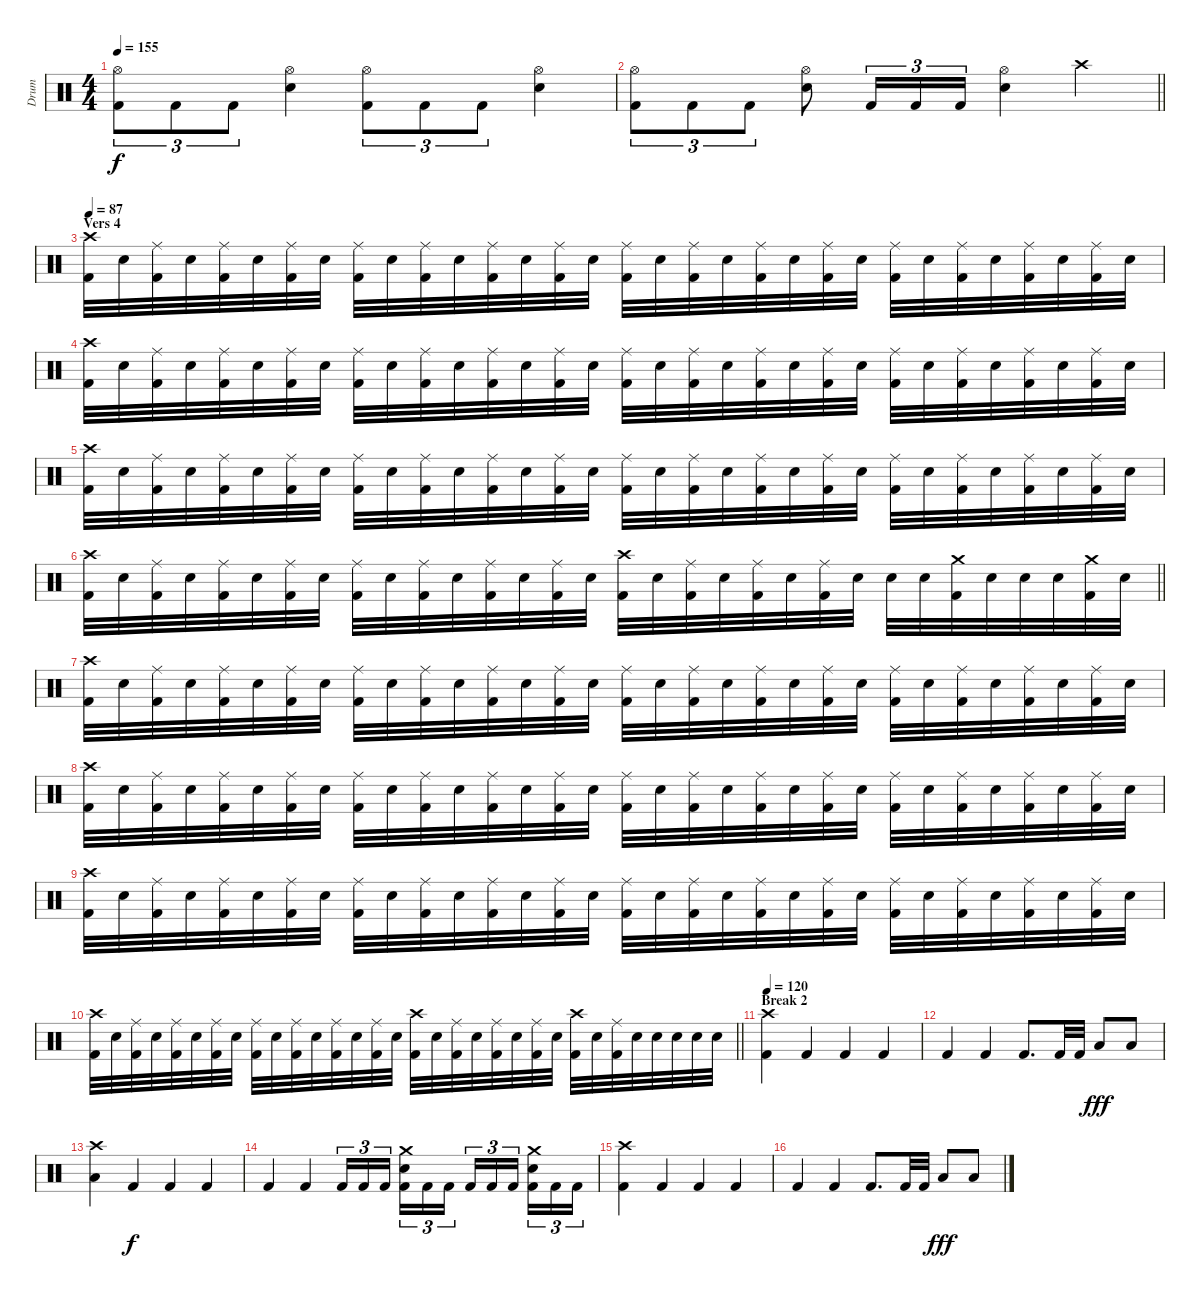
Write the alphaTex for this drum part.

\track ("Drum" "Drum") {instrument percussion}
\staff {score}
\articulation defaults
\ts (4 4)
\tempo 155
\clef neutral
\ks c
("Hi-Hat (open)" "Kick (hit) 2").8{tu (3 2) dy f} "Kick (hit) 2".8{tu (3 2)} "Kick (hit) 2".8{tu (3 2)} ("Hi-Hat (open)" "Electric Snare (hit)").4 ("Hi-Hat (open)" "Kick (hit) 2").8{tu (3 2)} "Kick (hit) 2".8{tu (3 2)} "Kick (hit) 2".8{tu (3 2)} ("Hi-Hat (open)" "Electric Snare (hit)").4 |
\barLineRight lightlight
("Hi-Hat (open)" "Kick (hit) 2").8{tu (3 2)} "Kick (hit) 2".8{tu (3 2)} "Kick (hit) 2".8{tu (3 2)} ("Hi-Hat (open)" "Electric Snare (hit)").8 "Kick (hit) 2".16{tu (3 2)} "Kick (hit) 2".16{tu (3 2)} "Kick (hit) 2".16{tu (3 2)} ("Hi-Hat (open)" "Electric Snare (hit)").4 "Crash high (hit)".4 |
\section ("" "Vers 4")
\tempo 87
("Crash high (hit)" "Kick (hit) 2").32 "Electric Snare (hit)".32 ("Ride (middle)" "Kick (hit) 2").32 "Electric Snare (hit)".32 ("Ride (middle)" "Kick (hit) 2").32 "Electric Snare (hit)".32 ("Ride (middle)" "Kick (hit) 2").32 "Electric Snare (hit)".32 ("Ride (middle)" "Kick (hit) 2").32 "Electric Snare (hit)".32 ("Ride (middle)" "Kick (hit) 2").32 "Electric Snare (hit)".32 ("Ride (middle)" "Kick (hit) 2").32 "Electric Snare (hit)".32 ("Ride (middle)" "Kick (hit) 2").32 "Electric Snare (hit)".32 ("Ride (middle)" "Kick (hit) 2").32 "Electric Snare (hit)".32 ("Ride (middle)" "Kick (hit) 2").32 "Electric Snare (hit)".32 ("Ride (middle)" "Kick (hit) 2").32 "Electric Snare (hit)".32 ("Ride (middle)" "Kick (hit) 2").32 "Electric Snare (hit)".32 ("Ride (middle)" "Kick (hit) 2").32 "Electric Snare (hit)".32 ("Ride (middle)" "Kick (hit) 2").32 "Electric Snare (hit)".32 ("Ride (middle)" "Kick (hit) 2").32 "Electric Snare (hit)".32 ("Ride (middle)" "Kick (hit) 2").32 "Electric Snare (hit)".32 |
("Crash high (hit)" "Kick (hit) 2").32 "Electric Snare (hit)".32 ("Ride (middle)" "Kick (hit) 2").32 "Electric Snare (hit)".32 ("Ride (middle)" "Kick (hit) 2").32 "Electric Snare (hit)".32 ("Ride (middle)" "Kick (hit) 2").32 "Electric Snare (hit)".32 ("Ride (middle)" "Kick (hit) 2").32 "Electric Snare (hit)".32 ("Ride (middle)" "Kick (hit) 2").32 "Electric Snare (hit)".32 ("Ride (middle)" "Kick (hit) 2").32 "Electric Snare (hit)".32 ("Ride (middle)" "Kick (hit) 2").32 "Electric Snare (hit)".32 ("Ride (middle)" "Kick (hit) 2").32 "Electric Snare (hit)".32 ("Ride (middle)" "Kick (hit) 2").32 "Electric Snare (hit)".32 ("Ride (middle)" "Kick (hit) 2").32 "Electric Snare (hit)".32 ("Ride (middle)" "Kick (hit) 2").32 "Electric Snare (hit)".32 ("Ride (middle)" "Kick (hit) 2").32 "Electric Snare (hit)".32 ("Ride (middle)" "Kick (hit) 2").32 "Electric Snare (hit)".32 ("Ride (middle)" "Kick (hit) 2").32 "Electric Snare (hit)".32 ("Ride (middle)" "Kick (hit) 2").32 "Electric Snare (hit)".32 |
("Crash high (hit)" "Kick (hit) 2").32 "Electric Snare (hit)".32 ("Ride (middle)" "Kick (hit) 2").32 "Electric Snare (hit)".32 ("Ride (middle)" "Kick (hit) 2").32 "Electric Snare (hit)".32 ("Ride (middle)" "Kick (hit) 2").32 "Electric Snare (hit)".32 ("Ride (middle)" "Kick (hit) 2").32 "Electric Snare (hit)".32 ("Ride (middle)" "Kick (hit) 2").32 "Electric Snare (hit)".32 ("Ride (middle)" "Kick (hit) 2").32 "Electric Snare (hit)".32 ("Ride (middle)" "Kick (hit) 2").32 "Electric Snare (hit)".32 ("Ride (middle)" "Kick (hit) 2").32 "Electric Snare (hit)".32 ("Ride (middle)" "Kick (hit) 2").32 "Electric Snare (hit)".32 ("Ride (middle)" "Kick (hit) 2").32 "Electric Snare (hit)".32 ("Ride (middle)" "Kick (hit) 2").32 "Electric Snare (hit)".32 ("Ride (middle)" "Kick (hit) 2").32 "Electric Snare (hit)".32 ("Ride (middle)" "Kick (hit) 2").32 "Electric Snare (hit)".32 ("Ride (middle)" "Kick (hit) 2").32 "Electric Snare (hit)".32 ("Ride (middle)" "Kick (hit) 2").32 "Electric Snare (hit)".32 |
\barLineRight lightlight
("Crash high (hit)" "Kick (hit) 2").32 "Electric Snare (hit)".32 ("Ride (middle)" "Kick (hit) 2").32 "Electric Snare (hit)".32 ("Ride (middle)" "Kick (hit) 2").32 "Electric Snare (hit)".32 ("Ride (middle)" "Kick (hit) 2").32 "Electric Snare (hit)".32 ("Ride (middle)" "Kick (hit) 2").32 "Electric Snare (hit)".32 ("Ride (middle)" "Kick (hit) 2").32 "Electric Snare (hit)".32 ("Ride (middle)" "Kick (hit) 2").32 "Electric Snare (hit)".32 ("Ride (middle)" "Kick (hit) 2").32 "Electric Snare (hit)".32 ("Crash high (hit)" "Kick (hit) 2").32 "Electric Snare (hit)".32 ("Ride (middle)" "Kick (hit) 2").32 "Electric Snare (hit)".32 ("Ride (middle)" "Kick (hit) 2").32 "Electric Snare (hit)".32 ("Ride (middle)" "Kick (hit) 2").32 "Electric Snare (hit)".32 "Electric Snare (hit)".32 "Electric Snare (hit)".32 ("Crash medium (hit)" "Kick (hit) 2").32 "Electric Snare (hit)".32 "Electric Snare (hit)".32 "Electric Snare (hit)".32 ("Crash medium (hit)" "Kick (hit) 2").32 "Electric Snare (hit)".32 |
("Crash high (hit)" "Kick (hit) 2").32 "Electric Snare (hit)".32 ("Ride (middle)" "Kick (hit) 2").32 "Electric Snare (hit)".32 ("Ride (middle)" "Kick (hit) 2").32 "Electric Snare (hit)".32 ("Ride (middle)" "Kick (hit) 2").32 "Electric Snare (hit)".32 ("Ride (middle)" "Kick (hit) 2").32 "Electric Snare (hit)".32 ("Ride (middle)" "Kick (hit) 2").32 "Electric Snare (hit)".32 ("Ride (middle)" "Kick (hit) 2").32 "Electric Snare (hit)".32 ("Ride (middle)" "Kick (hit) 2").32 "Electric Snare (hit)".32 ("Ride (middle)" "Kick (hit) 2").32 "Electric Snare (hit)".32 ("Ride (middle)" "Kick (hit) 2").32 "Electric Snare (hit)".32 ("Ride (middle)" "Kick (hit) 2").32 "Electric Snare (hit)".32 ("Ride (middle)" "Kick (hit) 2").32 "Electric Snare (hit)".32 ("Ride (middle)" "Kick (hit) 2").32 "Electric Snare (hit)".32 ("Ride (middle)" "Kick (hit) 2").32 "Electric Snare (hit)".32 ("Ride (middle)" "Kick (hit) 2").32 "Electric Snare (hit)".32 ("Ride (middle)" "Kick (hit) 2").32 "Electric Snare (hit)".32 |
("Crash high (hit)" "Kick (hit) 2").32 "Electric Snare (hit)".32 ("Ride (middle)" "Kick (hit) 2").32 "Electric Snare (hit)".32 ("Ride (middle)" "Kick (hit) 2").32 "Electric Snare (hit)".32 ("Ride (middle)" "Kick (hit) 2").32 "Electric Snare (hit)".32 ("Ride (middle)" "Kick (hit) 2").32 "Electric Snare (hit)".32 ("Ride (middle)" "Kick (hit) 2").32 "Electric Snare (hit)".32 ("Ride (middle)" "Kick (hit) 2").32 "Electric Snare (hit)".32 ("Ride (middle)" "Kick (hit) 2").32 "Electric Snare (hit)".32 ("Ride (middle)" "Kick (hit) 2").32 "Electric Snare (hit)".32 ("Ride (middle)" "Kick (hit) 2").32 "Electric Snare (hit)".32 ("Ride (middle)" "Kick (hit) 2").32 "Electric Snare (hit)".32 ("Ride (middle)" "Kick (hit) 2").32 "Electric Snare (hit)".32 ("Ride (middle)" "Kick (hit) 2").32 "Electric Snare (hit)".32 ("Ride (middle)" "Kick (hit) 2").32 "Electric Snare (hit)".32 ("Ride (middle)" "Kick (hit) 2").32 "Electric Snare (hit)".32 ("Ride (middle)" "Kick (hit) 2").32 "Electric Snare (hit)".32 |
("Crash high (hit)" "Kick (hit) 2").32 "Electric Snare (hit)".32 ("Ride (middle)" "Kick (hit) 2").32 "Electric Snare (hit)".32 ("Ride (middle)" "Kick (hit) 2").32 "Electric Snare (hit)".32 ("Ride (middle)" "Kick (hit) 2").32 "Electric Snare (hit)".32 ("Ride (middle)" "Kick (hit) 2").32 "Electric Snare (hit)".32 ("Ride (middle)" "Kick (hit) 2").32 "Electric Snare (hit)".32 ("Ride (middle)" "Kick (hit) 2").32 "Electric Snare (hit)".32 ("Ride (middle)" "Kick (hit) 2").32 "Electric Snare (hit)".32 ("Ride (middle)" "Kick (hit) 2").32 "Electric Snare (hit)".32 ("Ride (middle)" "Kick (hit) 2").32 "Electric Snare (hit)".32 ("Ride (middle)" "Kick (hit) 2").32 "Electric Snare (hit)".32 ("Ride (middle)" "Kick (hit) 2").32 "Electric Snare (hit)".32 ("Ride (middle)" "Kick (hit) 2").32 "Electric Snare (hit)".32 ("Ride (middle)" "Kick (hit) 2").32 "Electric Snare (hit)".32 ("Ride (middle)" "Kick (hit) 2").32 "Electric Snare (hit)".32 ("Ride (middle)" "Kick (hit) 2").32 "Electric Snare (hit)".32 |
\barLineRight lightlight
("Crash high (hit)" "Kick (hit) 2").32 "Electric Snare (hit)".32 ("Ride (middle)" "Kick (hit) 2").32 "Electric Snare (hit)".32 ("Ride (middle)" "Kick (hit) 2").32 "Electric Snare (hit)".32 ("Ride (middle)" "Kick (hit) 2").32 "Electric Snare (hit)".32 ("Ride (middle)" "Kick (hit) 2").32 "Electric Snare (hit)".32 ("Ride (middle)" "Kick (hit) 2").32 "Electric Snare (hit)".32 ("Ride (middle)" "Kick (hit) 2").32 "Electric Snare (hit)".32 ("Ride (middle)" "Kick (hit) 2").32 "Electric Snare (hit)".32 ("Crash high (hit)" "Kick (hit) 2").32 "Electric Snare (hit)".32 ("Ride (middle)" "Kick (hit) 2").32 "Electric Snare (hit)".32 ("Ride (middle)" "Kick (hit) 2").32 "Electric Snare (hit)".32 ("Ride (middle)" "Kick (hit) 2").32 "Electric Snare (hit)".32 ("Crash high (hit)" "Kick (hit) 2").32 "Electric Snare (hit)".32 ("Ride (middle)" "Kick (hit) 2").32 "Electric Snare (hit)".32 "Electric Snare (hit)".32 "Electric Snare (hit)".32 "Electric Snare (hit)".32 "Electric Snare (hit)".32 |
\section ("" "Break 2")
\tempo 120
("Crash high (hit)" "Kick (hit) 2").4 "Kick (hit) 2".4 "Kick (hit) 2".4 "Kick (hit) 2".4 |
"Kick (hit) 2".4 "Kick (hit) 2".4 "Kick (hit) 2".8{d} "Kick (hit) 2".32 "Kick (hit) 2".32 "Low Floor Tom (hit)".8{dy fff} "Low Floor Tom (hit)".8 |
("Crash high (hit)" "Low Floor Tom (hit)").4 "Kick (hit) 2".4{dy f} "Kick (hit) 2".4 "Kick (hit) 2".4 |
"Kick (hit) 2".4 "Kick (hit) 2".4 "Kick (hit) 2".16{tu (3 2)} "Kick (hit) 2".16{tu (3 2)} "Kick (hit) 2".16{tu (3 2) beam splitsecondary} ("Crash medium (hit)" "Electric Snare (hit)" "Kick (hit) 2").16{tu (3 2)} "Kick (hit) 2".16{tu (3 2)} "Kick (hit) 2".16{tu (3 2)} "Kick (hit) 2".16{tu (3 2)} "Kick (hit) 2".16{tu (3 2)} "Kick (hit) 2".16{tu (3 2) beam splitsecondary} ("Crash medium (hit)" "Electric Snare (hit)" "Kick (hit) 2").16{tu (3 2)} "Kick (hit) 2".16{tu (3 2)} "Kick (hit) 2".16{tu (3 2)} |
("Crash high (hit)" "Kick (hit) 2").4 "Kick (hit) 2".4 "Kick (hit) 2".4 "Kick (hit) 2".4 |
"Kick (hit) 2".4 "Kick (hit) 2".4 "Kick (hit) 2".8{d} "Kick (hit) 2".32 "Kick (hit) 2".32 "Low Floor Tom (hit)".8{dy fff} "Low Floor Tom (hit)".8
